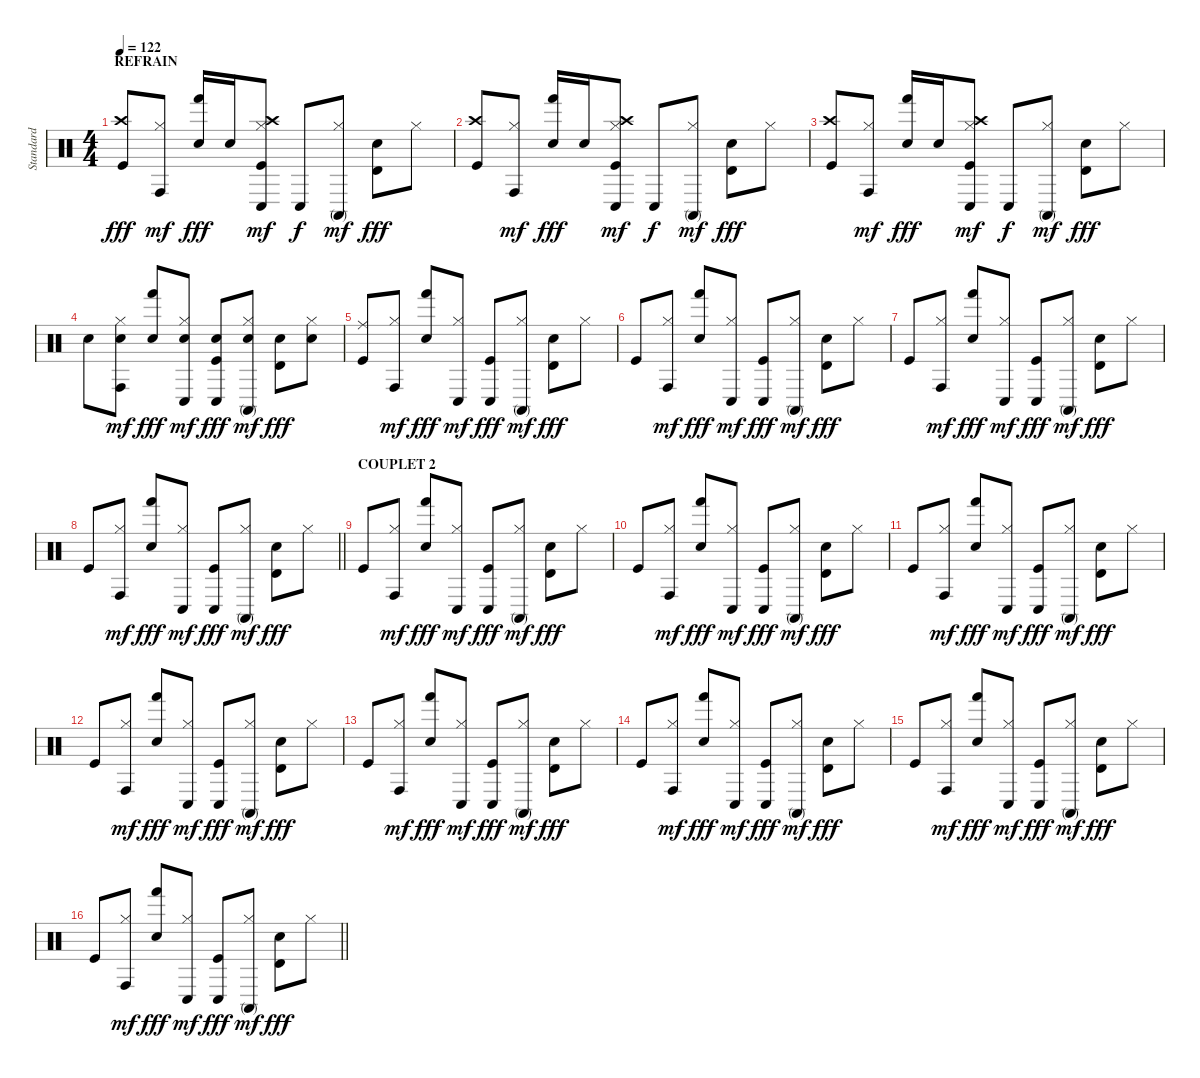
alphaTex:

\track ("Standard" "Standard") {instrument percussion}
\staff {score}
\articulation defaults
\ts (4 4)
\section ("" "REFRAIN")
\tempo 122
\clef neutral
\ks c
("Kick (hit)" "Crash high (hit)").8{dy fff} ("Hi-Hat (closed)" "Conga high (hit)").8{dy mf} ("Electric Snare (hit)" "Hand (hit)").16{dy fff} "Electric Snare (hit)".16 ("Kick (hit)" "Hi-Hat (closed)" "Crash high (hit)" "Conga low (hit)").8{dy mf} "Conga low (hit)".8{dy f} ("Hi-Hat (closed)" "Conga high (mute)").8{dy mf} ("Electric Snare (hit)" "Timbale high (hit)").8{dy fff} "Hi-Hat (closed)".8 |
("Kick (hit)" "Crash high (hit)").8 ("Hi-Hat (closed)" "Conga high (hit)").8{dy mf} ("Electric Snare (hit)" "Hand (hit)").16{dy fff} "Electric Snare (hit)".16 ("Kick (hit)" "Hi-Hat (closed)" "Crash high (hit)" "Conga low (hit)").8{dy mf} "Conga low (hit)".8{dy f} ("Hi-Hat (closed)" "Conga high (mute)").8{dy mf} ("Electric Snare (hit)" "Timbale high (hit)").8{dy fff} "Hi-Hat (closed)".8 |
("Kick (hit)" "Crash high (hit)").8 ("Hi-Hat (closed)" "Conga high (hit)").8{dy mf} ("Electric Snare (hit)" "Hand (hit)").16{dy fff} "Electric Snare (hit)".16 ("Kick (hit)" "Hi-Hat (closed)" "Crash high (hit)" "Conga low (hit)").8{dy mf} "Conga low (hit)".8{dy f} ("Hi-Hat (closed)" "Conga high (mute)").8{dy mf} ("Electric Snare (hit)" "Timbale high (hit)").8{dy fff} "Hi-Hat (closed)".8 |
"Electric Snare (hit)".8 ("Electric Snare (hit)" "Hi-Hat (closed)" "Conga high (hit)").8{dy mf} ("Electric Snare (hit)" "Hand (hit)").8{dy fff} ("Electric Snare (hit)" "Hi-Hat (closed)" "Conga low (hit)").8{dy mf} ("Kick (hit)" "Electric Snare (hit)" "Conga low (hit)").8{dy fff} ("Electric Snare (hit)" "Hi-Hat (closed)" "Conga high (mute)").8{dy mf} ("Electric Snare (hit)" "Timbale high (hit)").8{dy fff} ("Electric Snare (hit)" "Hi-Hat (closed)").8 |
("Kick (hit)" "Ride (middle)").8 ("Hi-Hat (closed)" "Conga high (hit)").8{dy mf} ("Electric Snare (hit)" "Hand (hit)").8{dy fff} ("Hi-Hat (closed)" "Conga low (hit)").8{dy mf} ("Kick (hit)" "Conga low (hit)").8{dy fff} ("Hi-Hat (closed)" "Conga high (mute)").8{dy mf} ("Electric Snare (hit)" "Timbale high (hit)").8{dy fff} "Hi-Hat (closed)".8 |
"Kick (hit)".8 ("Hi-Hat (closed)" "Conga high (hit)").8{dy mf} ("Electric Snare (hit)" "Hand (hit)").8{dy fff} ("Hi-Hat (closed)" "Conga low (hit)").8{dy mf} ("Kick (hit)" "Conga low (hit)").8{dy fff} ("Hi-Hat (closed)" "Conga high (mute)").8{dy mf} ("Electric Snare (hit)" "Timbale high (hit)").8{dy fff} "Hi-Hat (closed)".8 |
"Kick (hit)".8 ("Hi-Hat (closed)" "Conga high (hit)").8{dy mf} ("Electric Snare (hit)" "Hand (hit)").8{dy fff} ("Hi-Hat (closed)" "Conga low (hit)").8{dy mf} ("Kick (hit)" "Conga low (hit)").8{dy fff} ("Hi-Hat (closed)" "Conga high (mute)").8{dy mf} ("Electric Snare (hit)" "Timbale high (hit)").8{dy fff} "Hi-Hat (closed)".8 |
\barLineRight lightlight "Kick (hit)".8
("Hi-Hat (closed)" "Conga high (hit)").8{dy mf} ("Electric Snare (hit)" "Hand (hit)").8{dy fff} ("Hi-Hat (closed)" "Conga low (hit)").8{dy mf} ("Kick (hit)" "Conga low (hit)").8{dy fff} ("Hi-Hat (closed)" "Conga high (mute)").8{dy mf} ("Electric Snare (hit)" "Timbale high (hit)").8{dy fff} "Hi-Hat (closed)".8 |
\section ("" "COUPLET 2")
"Kick (hit)".8 ("Hi-Hat (closed)" "Conga high (hit)").8{dy mf} ("Electric Snare (hit)" "Hand (hit)").8{dy fff} ("Hi-Hat (closed)" "Conga low (hit)").8{dy mf} ("Kick (hit)" "Conga low (hit)").8{dy fff} ("Hi-Hat (closed)" "Conga high (mute)").8{dy mf} ("Electric Snare (hit)" "Timbale high (hit)").8{dy fff} "Hi-Hat (closed)".8 |
"Kick (hit)".8 ("Hi-Hat (closed)" "Conga high (hit)").8{dy mf} ("Electric Snare (hit)" "Hand (hit)").8{dy fff} ("Hi-Hat (closed)" "Conga low (hit)").8{dy mf} ("Kick (hit)" "Conga low (hit)").8{dy fff} ("Hi-Hat (closed)" "Conga high (mute)").8{dy mf} ("Electric Snare (hit)" "Timbale high (hit)").8{dy fff} "Hi-Hat (closed)".8 |
"Kick (hit)".8 ("Hi-Hat (closed)" "Conga high (hit)").8{dy mf} ("Electric Snare (hit)" "Hand (hit)").8{dy fff} ("Hi-Hat (closed)" "Conga low (hit)").8{dy mf} ("Kick (hit)" "Conga low (hit)").8{dy fff} ("Hi-Hat (closed)" "Conga high (mute)").8{dy mf} ("Electric Snare (hit)" "Timbale high (hit)").8{dy fff} "Hi-Hat (closed)".8 |
"Kick (hit)".8 ("Hi-Hat (closed)" "Conga high (hit)").8{dy mf} ("Electric Snare (hit)" "Hand (hit)").8{dy fff} ("Hi-Hat (closed)" "Conga low (hit)").8{dy mf} ("Kick (hit)" "Conga low (hit)").8{dy fff} ("Hi-Hat (closed)" "Conga high (mute)").8{dy mf} ("Electric Snare (hit)" "Timbale high (hit)").8{dy fff} "Hi-Hat (closed)".8 |
"Kick (hit)".8 ("Hi-Hat (closed)" "Conga high (hit)").8{dy mf} ("Electric Snare (hit)" "Hand (hit)").8{dy fff} ("Hi-Hat (closed)" "Conga low (hit)").8{dy mf} ("Kick (hit)" "Conga low (hit)").8{dy fff} ("Hi-Hat (closed)" "Conga high (mute)").8{dy mf} ("Electric Snare (hit)" "Timbale high (hit)").8{dy fff} "Hi-Hat (closed)".8 |
"Kick (hit)".8 ("Hi-Hat (closed)" "Conga high (hit)").8{dy mf} ("Electric Snare (hit)" "Hand (hit)").8{dy fff} ("Hi-Hat (closed)" "Conga low (hit)").8{dy mf} ("Kick (hit)" "Conga low (hit)").8{dy fff} ("Hi-Hat (closed)" "Conga high (mute)").8{dy mf} ("Electric Snare (hit)" "Timbale high (hit)").8{dy fff} "Hi-Hat (closed)".8 |
"Kick (hit)".8 ("Hi-Hat (closed)" "Conga high (hit)").8{dy mf} ("Electric Snare (hit)" "Hand (hit)").8{dy fff} ("Hi-Hat (closed)" "Conga low (hit)").8{dy mf} ("Kick (hit)" "Conga low (hit)").8{dy fff} ("Hi-Hat (closed)" "Conga high (mute)").8{dy mf} ("Electric Snare (hit)" "Timbale high (hit)").8{dy fff} "Hi-Hat (closed)".8 |
\barLineRight lightlight "Kick (hit)".8
("Hi-Hat (closed)" "Conga high (hit)").8{dy mf} ("Electric Snare (hit)" "Hand (hit)").8{dy fff} ("Hi-Hat (closed)" "Conga low (hit)").8{dy mf} ("Kick (hit)" "Conga low (hit)").8{dy fff} ("Hi-Hat (closed)" "Conga high (mute)").8{dy mf} ("Electric Snare (hit)" "Timbale high (hit)").8{dy fff} "Hi-Hat (closed)".8
